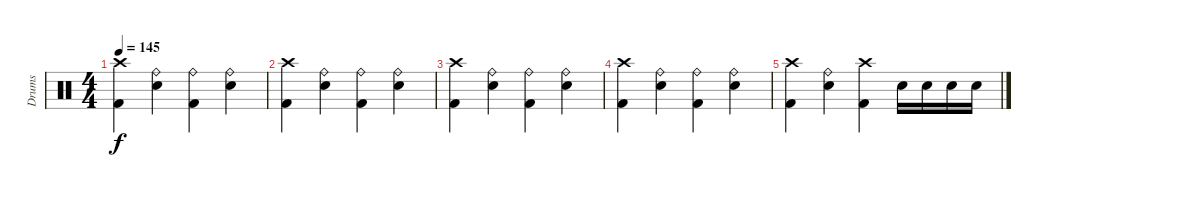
\track ("Drums" "Drums") {instrument percussion}
\staff {score}
\articulation defaults
\ts (4 4)
\tempo 145
\clef neutral
\ks c
("Crash high (hit)" "Kick (hit) 2").4{dy f} ("Ride (bell)" "Snare (hit) 2").4 ("Ride (bell)" "Kick (hit) 2").4 ("Ride (bell)" "Snare (hit) 2").4 |
("Crash high (hit)" "Kick (hit) 2").4 ("Ride (bell)" "Snare (hit) 2").4 ("Ride (bell)" "Kick (hit) 2").4 ("Ride (bell)" "Snare (hit) 2").4 |
("Crash high (hit)" "Kick (hit) 2").4 ("Ride (bell)" "Snare (hit) 2").4 ("Ride (bell)" "Kick (hit) 2").4 ("Ride (bell)" "Snare (hit) 2").4 |
("Crash high (hit)" "Kick (hit) 2").4 ("Ride (bell)" "Snare (hit) 2").4 ("Ride (bell)" "Kick (hit) 2").4 ("Ride (bell)" "Snare (hit) 2").4 |
("Crash high (hit)" "Kick (hit) 2").4 ("Ride (bell)" "Snare (hit) 2").4 ("Crash high (hit)" "Kick (hit) 2").4 "Snare (hit) 2".16 "Snare (hit) 2".16 "Snare (hit) 2".16 "Snare (hit) 2".16
